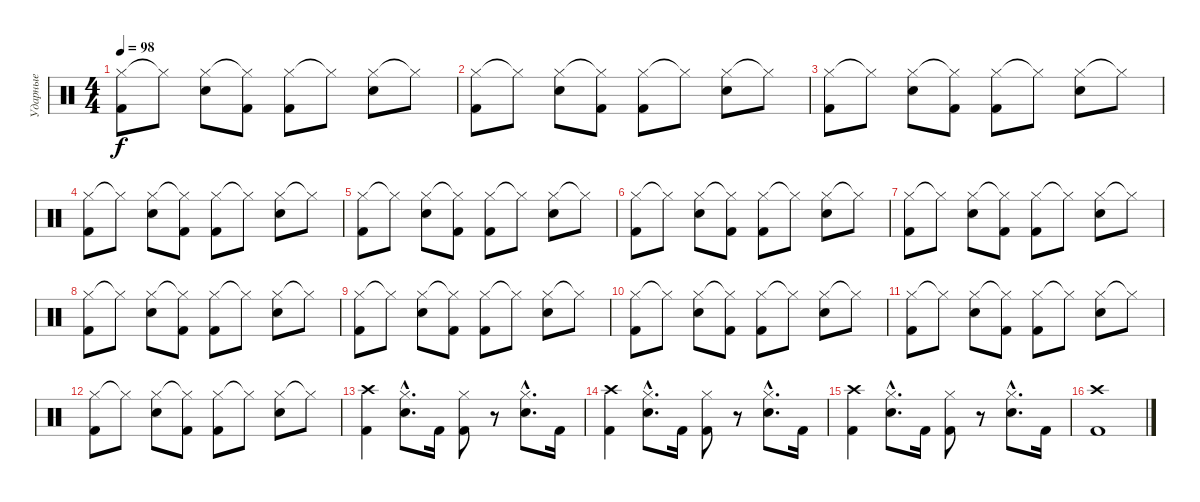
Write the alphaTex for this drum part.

\track ("Ударные" "Ударные") {instrument percussion}
\staff {score}
\articulation defaults
\ts (4 4)
\tempo 98
\clef neutral
\ks c
("Hi-Hat (closed)" "Kick (hit) 2").8{dy f} "Hi-Hat (closed)"{t}.8 ("Hi-Hat (closed)" "Snare (hit) 2").8 ("Hi-Hat (closed)"{t} "Kick (hit) 2").8 ("Hi-Hat (closed)" "Kick (hit) 2").8 "Hi-Hat (closed)"{t}.8 ("Hi-Hat (closed)" "Snare (hit) 2").8 "Hi-Hat (closed)"{t}.8 |
("Hi-Hat (closed)" "Kick (hit) 2").8 "Hi-Hat (closed)"{t}.8 ("Hi-Hat (closed)" "Snare (hit) 2").8 ("Hi-Hat (closed)"{t} "Kick (hit) 2").8 ("Hi-Hat (closed)" "Kick (hit) 2").8 "Hi-Hat (closed)"{t}.8 ("Hi-Hat (closed)" "Snare (hit) 2").8 "Hi-Hat (closed)"{t}.8 |
("Hi-Hat (closed)" "Kick (hit) 2").8 "Hi-Hat (closed)"{t}.8 ("Hi-Hat (closed)" "Snare (hit) 2").8 ("Hi-Hat (closed)"{t} "Kick (hit) 2").8 ("Hi-Hat (closed)" "Kick (hit) 2").8 "Hi-Hat (closed)"{t}.8 ("Hi-Hat (closed)" "Snare (hit) 2").8 "Hi-Hat (closed)"{t}.8 |
("Hi-Hat (closed)" "Kick (hit) 2").8 "Hi-Hat (closed)"{t}.8 ("Hi-Hat (closed)" "Snare (hit) 2").8 ("Hi-Hat (closed)"{t} "Kick (hit) 2").8 ("Hi-Hat (closed)" "Kick (hit) 2").8 "Hi-Hat (closed)"{t}.8 ("Hi-Hat (closed)" "Snare (hit) 2").8 "Hi-Hat (closed)"{t}.8 |
("Hi-Hat (closed)" "Kick (hit) 2").8 "Hi-Hat (closed)"{t}.8 ("Hi-Hat (closed)" "Snare (hit) 2").8 ("Hi-Hat (closed)"{t} "Kick (hit) 2").8 ("Hi-Hat (closed)" "Kick (hit) 2").8 "Hi-Hat (closed)"{t}.8 ("Hi-Hat (closed)" "Snare (hit) 2").8 "Hi-Hat (closed)"{t}.8 |
("Hi-Hat (closed)" "Kick (hit) 2").8 "Hi-Hat (closed)"{t}.8 ("Hi-Hat (closed)" "Snare (hit) 2").8 ("Hi-Hat (closed)"{t} "Kick (hit) 2").8 ("Hi-Hat (closed)" "Kick (hit) 2").8 "Hi-Hat (closed)"{t}.8 ("Hi-Hat (closed)" "Snare (hit) 2").8 "Hi-Hat (closed)"{t}.8 |
("Hi-Hat (closed)" "Kick (hit) 2").8 "Hi-Hat (closed)"{t}.8 ("Hi-Hat (closed)" "Snare (hit) 2").8 ("Hi-Hat (closed)"{t} "Kick (hit) 2").8 ("Hi-Hat (closed)" "Kick (hit) 2").8 "Hi-Hat (closed)"{t}.8 ("Hi-Hat (closed)" "Snare (hit) 2").8 "Hi-Hat (closed)"{t}.8 |
("Hi-Hat (closed)" "Kick (hit) 2").8 "Hi-Hat (closed)"{t}.8 ("Hi-Hat (closed)" "Snare (hit) 2").8 ("Hi-Hat (closed)"{t} "Kick (hit) 2").8 ("Hi-Hat (closed)" "Kick (hit) 2").8 "Hi-Hat (closed)"{t}.8 ("Hi-Hat (closed)" "Snare (hit) 2").8 "Hi-Hat (closed)"{t}.8 |
("Hi-Hat (closed)" "Kick (hit) 2").8 "Hi-Hat (closed)"{t}.8 ("Hi-Hat (closed)" "Snare (hit) 2").8 ("Hi-Hat (closed)"{t} "Kick (hit) 2").8 ("Hi-Hat (closed)" "Kick (hit) 2").8 "Hi-Hat (closed)"{t}.8 ("Hi-Hat (closed)" "Snare (hit) 2").8 "Hi-Hat (closed)"{t}.8 |
("Hi-Hat (closed)" "Kick (hit) 2").8 "Hi-Hat (closed)"{t}.8 ("Hi-Hat (closed)" "Snare (hit) 2").8 ("Hi-Hat (closed)"{t} "Kick (hit) 2").8 ("Hi-Hat (closed)" "Kick (hit) 2").8 "Hi-Hat (closed)"{t}.8 ("Hi-Hat (closed)" "Snare (hit) 2").8 "Hi-Hat (closed)"{t}.8 |
("Hi-Hat (closed)" "Kick (hit) 2").8 "Hi-Hat (closed)"{t}.8 ("Hi-Hat (closed)" "Snare (hit) 2").8 ("Hi-Hat (closed)"{t} "Kick (hit) 2").8 ("Hi-Hat (closed)" "Kick (hit) 2").8 "Hi-Hat (closed)"{t}.8 ("Hi-Hat (closed)" "Snare (hit) 2").8 "Hi-Hat (closed)"{t}.8 |
("Hi-Hat (closed)" "Kick (hit) 2").8 "Hi-Hat (closed)"{t}.8 ("Hi-Hat (closed)" "Snare (hit) 2").8 ("Hi-Hat (closed)"{t} "Kick (hit) 2").8 ("Hi-Hat (closed)" "Kick (hit) 2").8 "Hi-Hat (closed)"{t}.8 ("Hi-Hat (closed)" "Snare (hit) 2").8 "Hi-Hat (closed)"{t}.8 |
("Crash high (hit)" "Kick (hit) 2").4 ("Hi-Hat (closed)"{hac} "Snare (hit) 2"{hac}).8{d} "Kick (hit) 2".16 ("Hi-Hat (closed)" "Kick (hit) 2").8 r.8 ("Hi-Hat (closed)"{hac} "Snare (hit) 2"{hac}).8{d} "Kick (hit) 2".16 |
("Crash high (hit)" "Kick (hit) 2").4 ("Hi-Hat (closed)"{hac} "Snare (hit) 2"{hac}).8{d} "Kick (hit) 2".16 ("Hi-Hat (closed)" "Kick (hit) 2").8 r.8 ("Hi-Hat (closed)"{hac} "Snare (hit) 2"{hac}).8{d} "Kick (hit) 2".16 |
("Crash high (hit)" "Kick (hit) 2").4 ("Hi-Hat (closed)"{hac} "Snare (hit) 2"{hac}).8{d} "Kick (hit) 2".16 ("Hi-Hat (closed)" "Kick (hit) 2").8 r.8 ("Hi-Hat (closed)"{hac} "Snare (hit) 2"{hac}).8{d} "Kick (hit) 2".16 |
("Crash high (hit)" "Kick (hit) 2").1
